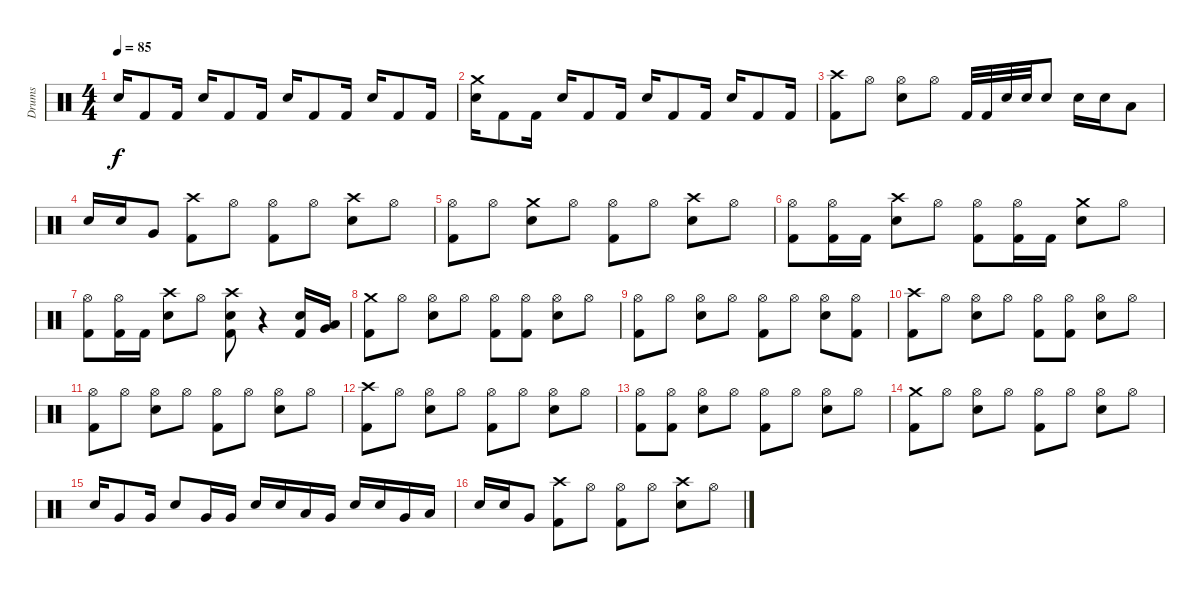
\track ("Drums" "Drums") {instrument percussion}
\staff {score}
\articulation defaults
\ts (4 4)
\tempo 85
\clef neutral
\ks c "Snare (hit) 2".16{dy f} "Kick (hit) 2".8 "Kick (hit) 2".16 "Snare (hit) 2".16 "Kick (hit) 2".8 "Kick (hit) 2".16 "Snare (hit) 2".16 "Kick (hit) 2".8 "Kick (hit) 2".16 "Snare (hit) 2".16 "Kick (hit) 2".8 "Kick (hit) 2".16
|
("Crash medium (hit)" "Snare (hit) 2").16 "Kick (hit) 2".8 "Kick (hit) 2".16 "Snare (hit) 2".16 "Kick (hit) 2".8 "Kick (hit) 2".16 "Snare (hit) 2".16 "Kick (hit) 2".8 "Kick (hit) 2".16 "Snare (hit) 2".16 "Kick (hit) 2".8 "Kick (hit) 2".16 |
("Crash high (hit)" "Kick (hit) 2").8 "Hi-Hat (open)".8 ("Snare (hit) 2" "Hi-Hat (open)").8 "Hi-Hat (open)".8 "Kick (hit) 2".32 "Kick (hit) 2".32 "Snare (hit) 2".32 "Snare (hit) 2".32 "Snare (hit) 2".8 "Snare (hit) 2".16 "Snare (hit) 2".16 "Low Tom (hit)".8 |
"Snare (hit) 2".16 "Snare (hit) 2".16 "Very Low Tom (hit)".8 ("Crash high (hit)" "Kick (hit) 2").8 "Hi-Hat (open)".8 ("Kick (hit) 2" "Hi-Hat (open)").8 "Hi-Hat (open)".8 ("Crash high (hit)" "Snare (hit) 2").8 "Hi-Hat (open)".8 |
("Kick (hit) 2" "Hi-Hat (open)").8 "Hi-Hat (open)".8 ("Snare (hit) 2" "Crash medium (hit)").8 "Hi-Hat (open)".8 ("Kick (hit) 2" "Hi-Hat (open)").8 "Hi-Hat (open)".8 ("Crash high (hit)" "Snare (hit) 2").8 "Hi-Hat (open)".8 |
("Kick (hit) 2" "Hi-Hat (open)").8 ("Hi-Hat (open)" "Kick (hit) 2").16 "Kick (hit) 2".16 ("Crash high (hit)" "Snare (hit) 2").8 "Hi-Hat (open)".8 ("Kick (hit) 2" "Hi-Hat (open)").8 ("Hi-Hat (open)" "Kick (hit) 2").16 "Kick (hit) 2".16 ("Snare (hit) 2" "Crash medium (hit)").8 "Hi-Hat (open)".8 |
("Kick (hit) 2" "Hi-Hat (open)").8 ("Hi-Hat (open)" "Kick (hit) 2").16 "Kick (hit) 2".16 ("Crash high (hit)" "Snare (hit) 2").8 "Hi-Hat (open)".8 ("Snare (hit) 2" "Crash high (hit)" "Kick (hit) 2").8 r.4 ("Kick (hit) 2" "Snare (hit) 2").16 ("Very Low Tom (hit)" "Low Tom (hit)").16 |
("Crash medium (hit)" "Kick (hit) 2").8 "Hi-Hat (open)".8 ("Hi-Hat (open)" "Snare (hit) 2").8 "Hi-Hat (open)".8 ("Kick (hit) 2" "Hi-Hat (open)").8 ("Kick (hit) 2" "Hi-Hat (open)").8 ("Snare (hit) 2" "Hi-Hat (open)").8 "Hi-Hat (open)".8 |
("Kick (hit) 2" "Hi-Hat (open)").8 "Hi-Hat (open)".8 ("Snare (hit) 2" "Hi-Hat (open)").8 "Hi-Hat (open)".8 ("Kick (hit) 2" "Hi-Hat (open)").8 "Hi-Hat (open)".8 ("Snare (hit) 2" "Hi-Hat (open)").8 ("Kick (hit) 2" "Hi-Hat (open)").8 |
("Crash high (hit)" "Kick (hit) 2").8 "Hi-Hat (open)".8 ("Snare (hit) 2" "Hi-Hat (open)").8 "Hi-Hat (open)".8 ("Hi-Hat (open)" "Kick (hit) 2").8 ("Hi-Hat (open)" "Kick (hit) 2").8 ("Hi-Hat (open)" "Snare (hit) 2").8 "Hi-Hat (open)".8 |
("Kick (hit) 2" "Hi-Hat (open)").8 "Hi-Hat (open)".8 ("Hi-Hat (open)" "Snare (hit) 2").8 "Hi-Hat (open)".8 ("Hi-Hat (open)" "Kick (hit) 2").8 "Hi-Hat (open)".8 ("Snare (hit) 2" "Hi-Hat (open)").8 "Hi-Hat (open)".8 |
("Crash high (hit)" "Kick (hit) 2").8 "Hi-Hat (open)".8 ("Snare (hit) 2" "Hi-Hat (open)").8 "Hi-Hat (open)".8 ("Hi-Hat (open)" "Kick (hit) 2").8 "Hi-Hat (open)".8 ("Snare (hit) 2" "Hi-Hat (open)").8 "Hi-Hat (open)".8 |
("Kick (hit) 2" "Hi-Hat (open)").8 ("Kick (hit) 2" "Hi-Hat (open)").8 ("Snare (hit) 2" "Hi-Hat (open)").8 "Hi-Hat (open)".8 ("Hi-Hat (open)" "Kick (hit) 2").8 "Hi-Hat (open)".8 ("Hi-Hat (open)" "Snare (hit) 2").8 "Hi-Hat (open)".8 |
("Crash medium (hit)" "Kick (hit) 2").8 "Hi-Hat (open)".8 ("Snare (hit) 2" "Hi-Hat (open)").8 "Hi-Hat (open)".8 ("Kick (hit) 2" "Hi-Hat (open)").8 "Hi-Hat (open)".8 ("Snare (hit) 2" "Hi-Hat (open)").8 "Hi-Hat (open)".8 |
"Snare (hit) 2".16 "Very Low Tom (hit)".8 "Very Low Tom (hit)".16 "Snare (hit) 2".8 "Very Low Tom (hit)".16 "Very Low Tom (hit)".16 "Snare (hit) 2".16 "Snare (hit) 2".16 "Low Tom (hit)".16 "Very Low Tom (hit)".16 "Snare (hit) 2".16 "Snare (hit) 2".16 "Very Low Tom (hit)".16 "Low Floor Tom (hit)".16 |
"Snare (hit) 2".16 "Snare (hit) 2".16 "Very Low Tom (hit)".8 ("Crash high (hit)" "Kick (hit) 2").8 "Hi-Hat (open)".8 ("Kick (hit) 2" "Hi-Hat (open)").8 "Hi-Hat (open)".8 ("Snare (hit) 2" "Crash high (hit)").8 "Hi-Hat (open)".8
